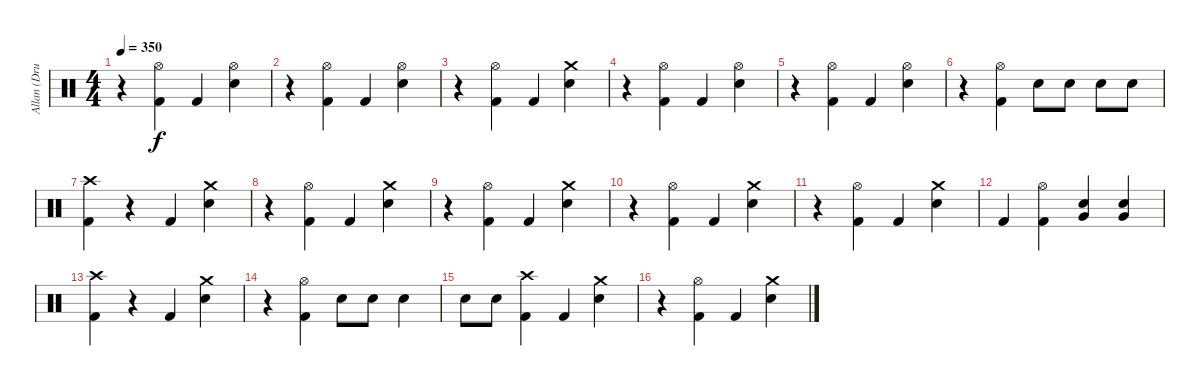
\track ("Allan (Drums)" "Allan (Dru") {instrument percussion}
\staff {score}
\articulation defaults
\ts (4 4)
\tempo 350
\clef neutral
\ks c
r.4{dy f} ("Hi-Hat (open)" "Kick (hit) 2").4 "Kick (hit) 2".4 ("Hi-Hat (open)" "Snare (hit) 2").4 |
r.4 ("Hi-Hat (open)" "Kick (hit) 2").4 "Kick (hit) 2".4 ("Hi-Hat (open)" "Snare (hit) 2").4 |
r.4 ("Hi-Hat (open)" "Kick (hit) 2").4 "Kick (hit) 2".4 ("Crash medium (hit)" "Snare (hit) 2").4 |
r.4 ("Hi-Hat (open)" "Kick (hit) 2").4 "Kick (hit) 2".4 ("Hi-Hat (open)" "Snare (hit) 2").4 |
r.4 ("Hi-Hat (open)" "Kick (hit) 2").4 "Kick (hit) 2".4 ("Hi-Hat (open)" "Snare (hit) 2").4 |
r.4 ("Hi-Hat (open)" "Kick (hit) 2").4 "Snare (hit) 2".8 "Snare (hit) 2".8 "Snare (hit) 2".8 "Snare (hit) 2".8 |
("Crash high (hit)" "Kick (hit) 2").4 r.4 "Kick (hit) 2".4 ("Crash medium (hit)" "Snare (hit) 2").4 |
r.4 ("Hi-Hat (open)" "Kick (hit) 2").4 "Kick (hit) 2".4 ("Crash medium (hit)" "Snare (hit) 2").4 |
r.4 ("Hi-Hat (open)" "Kick (hit) 2").4 "Kick (hit) 2".4 ("Crash medium (hit)" "Snare (hit) 2").4 |
r.4 ("Hi-Hat (open)" "Kick (hit) 2").4 "Kick (hit) 2".4 ("Crash medium (hit)" "Snare (hit) 2").4 |
r.4 ("Hi-Hat (open)" "Kick (hit) 2").4 "Kick (hit) 2".4 ("Crash medium (hit)" "Snare (hit) 2").4 |
"Kick (hit) 2".4 ("Hi-Hat (open)" "Kick (hit) 2").4 ("Very Low Tom (hit)" "Snare (hit) 2").4 ("Very Low Tom (hit)" "Snare (hit) 2").4 |
("Crash high (hit)" "Kick (hit) 2").4 r.4 "Kick (hit) 2".4 ("Crash medium (hit)" "Snare (hit) 2").4 |
r.4 ("Hi-Hat (open)" "Kick (hit) 2").4 "Snare (hit) 2".8 "Snare (hit) 2".8 "Snare (hit) 2".4 |
"Snare (hit) 2".8 "Snare (hit) 2".8 ("Crash high (hit)" "Kick (hit) 2").4 "Kick (hit) 2".4 ("Crash medium (hit)" "Snare (hit) 2").4 |
r.4 ("Hi-Hat (open)" "Kick (hit) 2").4 "Kick (hit) 2".4 ("Crash medium (hit)" "Snare (hit) 2").4
